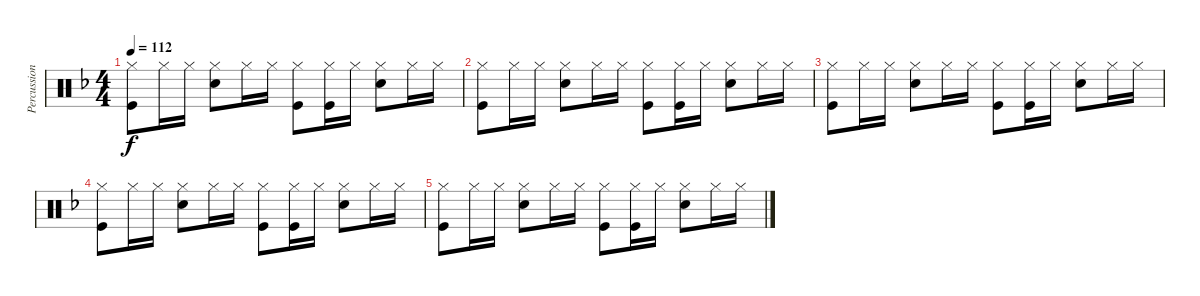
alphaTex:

\track ("Percussion" "Percussion") {instrument percussion}
\staff {score}
\articulation defaults
\ts (4 4)
\tempo 112
\clef neutral
\ks f
("Hi-Hat (closed)" "Kick (hit)").8{dy f} "Hi-Hat (closed)".16 "Hi-Hat (closed)".16 ("Hi-Hat (closed)" "Snare (hit) 2").8 "Hi-Hat (closed)".16 "Hi-Hat (closed)".16 ("Hi-Hat (closed)" "Kick (hit)").8 ("Hi-Hat (closed)" "Kick (hit)").16 "Hi-Hat (closed)".16 ("Hi-Hat (closed)" "Snare (hit) 2").8 "Hi-Hat (closed)".16 "Hi-Hat (closed)".16 |
("Hi-Hat (closed)" "Kick (hit)").8 "Hi-Hat (closed)".16 "Hi-Hat (closed)".16 ("Hi-Hat (closed)" "Snare (hit) 2").8 "Hi-Hat (closed)".16 "Hi-Hat (closed)".16 ("Hi-Hat (closed)" "Kick (hit)").8 ("Hi-Hat (closed)" "Kick (hit)").16 "Hi-Hat (closed)".16 ("Hi-Hat (closed)" "Snare (hit) 2").8 "Hi-Hat (closed)".16 "Hi-Hat (closed)".16 |
("Hi-Hat (closed)" "Kick (hit)").8 "Hi-Hat (closed)".16 "Hi-Hat (closed)".16 ("Hi-Hat (closed)" "Snare (hit) 2").8 "Hi-Hat (closed)".16 "Hi-Hat (closed)".16 ("Hi-Hat (closed)" "Kick (hit)").8 ("Hi-Hat (closed)" "Kick (hit)").16 "Hi-Hat (closed)".16 ("Hi-Hat (closed)" "Snare (hit) 2").8 "Hi-Hat (closed)".16 "Hi-Hat (closed)".16 |
("Hi-Hat (closed)" "Kick (hit)").8 "Hi-Hat (closed)".16 "Hi-Hat (closed)".16 ("Hi-Hat (closed)" "Snare (hit) 2").8 "Hi-Hat (closed)".16 "Hi-Hat (closed)".16 ("Hi-Hat (closed)" "Kick (hit)").8 ("Hi-Hat (closed)" "Kick (hit)").16 "Hi-Hat (closed)".16 ("Hi-Hat (closed)" "Snare (hit) 2").8 "Hi-Hat (closed)".16 "Hi-Hat (closed)".16 |
("Hi-Hat (closed)" "Kick (hit)").8 "Hi-Hat (closed)".16 "Hi-Hat (closed)".16 ("Hi-Hat (closed)" "Snare (hit) 2").8 "Hi-Hat (closed)".16 "Hi-Hat (closed)".16 ("Hi-Hat (closed)" "Kick (hit)").8 ("Hi-Hat (closed)" "Kick (hit)").16 "Hi-Hat (closed)".16 ("Hi-Hat (closed)" "Snare (hit) 2").8 "Hi-Hat (closed)".16 "Hi-Hat (closed)".16
